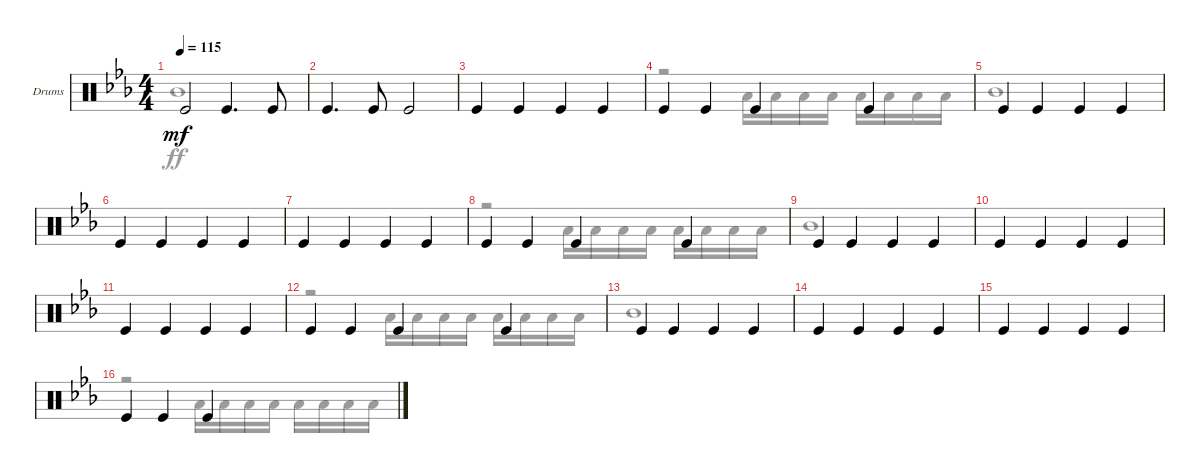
\bracketExtendMode groupsimilarinstruments
\firstSystemTrackNameOrientation horizontal
\otherSystemsTrackNameOrientation horizontal
\track ("Drums" "Drums") {solo instrument percussion}
\staff {score}
\articulation defaults
\voice
\ts (4 4)
\tempo 115
\clef neutral
\ks eb "Kick (hit)".2{dy mf} "Kick (hit)".4{d} "Kick (hit)".8
|
"Kick (hit)".4{d} "Kick (hit)".8 "Kick (hit)".2 |
"Kick (hit)".4 "Kick (hit)".4 "Kick (hit)".4 "Kick (hit)".4 |
"Kick (hit)".4 "Kick (hit)".4 "Kick (hit)".4 "Kick (hit)".4 |
"Kick (hit)".4 "Kick (hit)".4 "Kick (hit)".4 "Kick (hit)".4 |
"Kick (hit)".4 "Kick (hit)".4 "Kick (hit)".4 "Kick (hit)".4 |
"Kick (hit)".4 "Kick (hit)".4 "Kick (hit)".4 "Kick (hit)".4 |
"Kick (hit)".4 "Kick (hit)".4 "Kick (hit)".4 "Kick (hit)".4 |
"Kick (hit)".4 "Kick (hit)".4 "Kick (hit)".4 "Kick (hit)".4 |
"Kick (hit)".4 "Kick (hit)".4 "Kick (hit)".4 "Kick (hit)".4 |
"Kick (hit)".4 "Kick (hit)".4 "Kick (hit)".4 "Kick (hit)".4 |
"Kick (hit)".4 "Kick (hit)".4 "Kick (hit)".4 "Kick (hit)".4 |
"Kick (hit)".4 "Kick (hit)".4 "Kick (hit)".4 "Kick (hit)".4 |
\scale
0.272541 "Kick (hit)".4 "Kick (hit)".4 "Kick (hit)".4 "Kick (hit)".4 |
\scale
0.196721 "Kick (hit)".4 "Kick (hit)".4 "Kick (hit)".4 "Kick (hit)".4 |
\scale
0.484137 "Kick (hit)".4 "Kick (hit)".4 "Kick (hit)".4
\voice
\clef neutral
\ottava regular
\simile none
\ks eb "Mid Tom (hit)".1{dy ff}
|
|
|
r.2 "Low Tom (hit)".16 "Low Tom (hit)".16 "Low Tom (hit)".16 "Low Tom (hit)".16 "Low Tom (hit)".16 "Low Tom (hit)".16 "Low Tom (hit)".16 "Low Tom (hit)".16 |
"Mid Tom (hit)".1 |
|
|
r.2 "Low Tom (hit)".16 "Low Tom (hit)".16 "Low Tom (hit)".16 "Low Tom (hit)".16 "Low Tom (hit)".16 "Low Tom (hit)".16 "Low Tom (hit)".16 "Low Tom (hit)".16 |
"Mid Tom (hit)".1 |
|
|
r.2 "Low Tom (hit)".16 "Low Tom (hit)".16 "Low Tom (hit)".16 "Low Tom (hit)".16 "Low Tom (hit)".16 "Low Tom (hit)".16 "Low Tom (hit)".16 "Low Tom (hit)".16 |
"Mid Tom (hit)".1 |
\scale
0.272541 |
\scale
0.196721 |
\scale
0.484137 r.2 "Low Tom (hit)".16 "Low Tom (hit)".16 "Low Tom (hit)".16 "Low Tom (hit)".16 "Low Tom (hit)".16 "Low Tom (hit)".16 "Low Tom (hit)".16 "Low Tom (hit)".16
